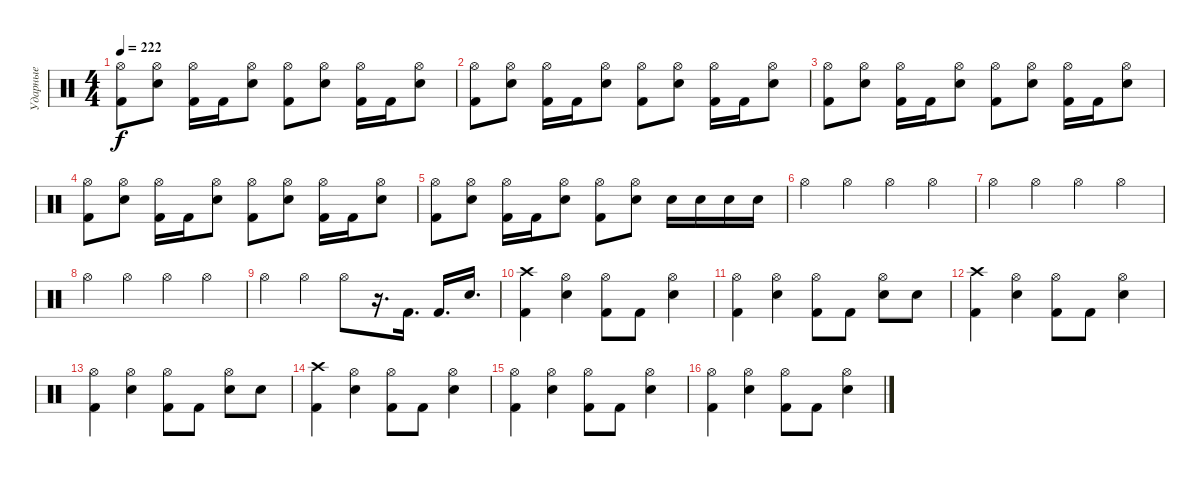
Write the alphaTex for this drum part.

\track ("Ударные" "Ударные") {instrument percussion}
\staff {score}
\articulation defaults
\ts (4 4)
\tempo 222
\clef neutral
\ks c
("Hi-Hat (open)" "Kick (hit) 2").8{dy f} ("Hi-Hat (open)" "Electric Snare (hit)").8 ("Hi-Hat (open)" "Kick (hit) 2").16 "Kick (hit) 2".16 ("Hi-Hat (open)" "Electric Snare (hit)").8 ("Hi-Hat (open)" "Kick (hit) 2").8 ("Hi-Hat (open)" "Electric Snare (hit)").8 ("Hi-Hat (open)" "Kick (hit) 2").16 "Kick (hit) 2".16 ("Hi-Hat (open)" "Electric Snare (hit)").8 |
("Hi-Hat (open)" "Kick (hit) 2").8 ("Hi-Hat (open)" "Electric Snare (hit)").8 ("Hi-Hat (open)" "Kick (hit) 2").16 "Kick (hit) 2".16 ("Hi-Hat (open)" "Electric Snare (hit)").8 ("Hi-Hat (open)" "Kick (hit) 2").8 ("Hi-Hat (open)" "Electric Snare (hit)").8 ("Hi-Hat (open)" "Kick (hit) 2").16 "Kick (hit) 2".16 ("Hi-Hat (open)" "Electric Snare (hit)").8 |
("Hi-Hat (open)" "Kick (hit) 2").8 ("Hi-Hat (open)" "Electric Snare (hit)").8 ("Hi-Hat (open)" "Kick (hit) 2").16 "Kick (hit) 2".16 ("Hi-Hat (open)" "Electric Snare (hit)").8 ("Hi-Hat (open)" "Kick (hit) 2").8 ("Hi-Hat (open)" "Electric Snare (hit)").8 ("Hi-Hat (open)" "Kick (hit) 2").16 "Kick (hit) 2".16 ("Hi-Hat (open)" "Electric Snare (hit)").8 |
("Hi-Hat (open)" "Kick (hit) 2").8 ("Hi-Hat (open)" "Electric Snare (hit)").8 ("Hi-Hat (open)" "Kick (hit) 2").16 "Kick (hit) 2".16 ("Hi-Hat (open)" "Electric Snare (hit)").8 ("Hi-Hat (open)" "Kick (hit) 2").8 ("Hi-Hat (open)" "Electric Snare (hit)").8 ("Hi-Hat (open)" "Kick (hit) 2").16 "Kick (hit) 2".16 ("Hi-Hat (open)" "Electric Snare (hit)").8 |
("Hi-Hat (open)" "Kick (hit) 2").8 ("Hi-Hat (open)" "Electric Snare (hit)").8 ("Hi-Hat (open)" "Kick (hit) 2").16 "Kick (hit) 2".16 ("Hi-Hat (open)" "Electric Snare (hit)").8 ("Hi-Hat (open)" "Kick (hit) 2").8 ("Hi-Hat (open)" "Electric Snare (hit)").8 "Electric Snare (hit)".16 "Electric Snare (hit)".16 "Electric Snare (hit)".16 "Electric Snare (hit)".16 |
"Hi-Hat (open)".4 "Hi-Hat (open)".4 "Hi-Hat (open)".4 "Hi-Hat (open)".4 |
"Hi-Hat (open)".4 "Hi-Hat (open)".4 "Hi-Hat (open)".4 "Hi-Hat (open)".4 |
"Hi-Hat (open)".4 "Hi-Hat (open)".4 "Hi-Hat (open)".4 "Hi-Hat (open)".4 |
"Hi-Hat (open)".4 "Hi-Hat (open)".4 "Hi-Hat (open)".8 r.16{d} "Kick (hit) 2".16{d} "Kick (hit) 2".16{d} "Electric Snare (hit)".16{d} |
("Crash high (hit)" "Kick (hit) 2").4 ("Hi-Hat (open)" "Electric Snare (hit)").4 ("Hi-Hat (open)" "Kick (hit) 2").8 "Kick (hit) 2".8 ("Hi-Hat (open)" "Electric Snare (hit)").4 |
("Hi-Hat (open)" "Kick (hit) 2").4 ("Hi-Hat (open)" "Electric Snare (hit)").4 ("Hi-Hat (open)" "Kick (hit) 2").8 "Kick (hit) 2".8 ("Hi-Hat (open)" "Electric Snare (hit)").8 "Electric Snare (hit)".8 |
("Crash high (hit)" "Kick (hit) 2").4 ("Hi-Hat (open)" "Electric Snare (hit)").4 ("Hi-Hat (open)" "Kick (hit) 2").8 "Kick (hit) 2".8 ("Hi-Hat (open)" "Electric Snare (hit)").4 |
("Hi-Hat (open)" "Kick (hit) 2").4 ("Hi-Hat (open)" "Electric Snare (hit)").4 ("Hi-Hat (open)" "Kick (hit) 2").8 "Kick (hit) 2".8 ("Hi-Hat (open)" "Electric Snare (hit)").8 "Electric Snare (hit)".8 |
("Crash high (hit)" "Kick (hit) 2").4 ("Hi-Hat (open)" "Electric Snare (hit)").4 ("Hi-Hat (open)" "Kick (hit) 2").8 "Kick (hit) 2".8 ("Hi-Hat (open)" "Electric Snare (hit)").4 |
("Hi-Hat (open)" "Kick (hit) 2").4 ("Hi-Hat (open)" "Electric Snare (hit)").4 ("Hi-Hat (open)" "Kick (hit) 2").8 "Kick (hit) 2".8 ("Hi-Hat (open)" "Electric Snare (hit)").4 |
("Hi-Hat (open)" "Kick (hit) 2").4 ("Hi-Hat (open)" "Electric Snare (hit)").4 ("Hi-Hat (open)" "Kick (hit) 2").8 "Kick (hit) 2".8 ("Hi-Hat (open)" "Electric Snare (hit)").4
